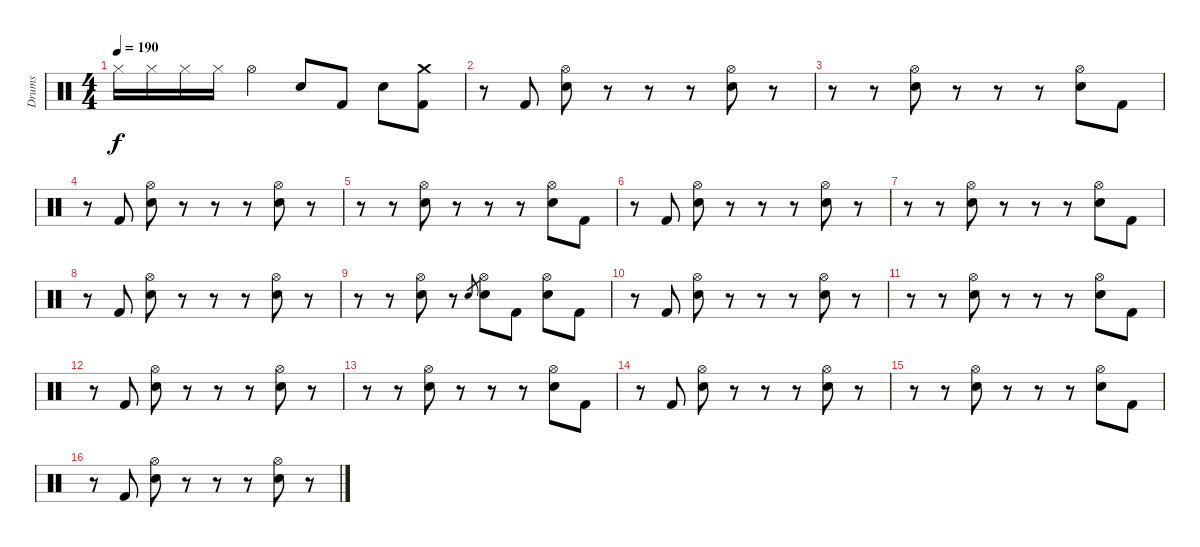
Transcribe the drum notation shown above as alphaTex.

\track ("Drums" "Drums") {instrument percussion}
\staff {score}
\articulation defaults
\ts (4 4)
\tempo 190
\clef neutral
\ks c "Hi-Hat (closed)".16{dy f} "Hi-Hat (closed)".16 "Hi-Hat (closed)".16 "Hi-Hat (closed)".16 "Hi-Hat (open)".4 "Electric Snare (hit)".8 "Kick (hit) 2".8 "Electric Snare (hit)".8
("Crash medium (hit)" "Kick (hit) 2").8 |
r.8 "Kick (hit) 2".8 ("Hi-Hat (open)" "Electric Snare (hit)").8 r.8 r.8 r.8 ("Hi-Hat (open)" "Electric Snare (hit)").8 r.8 |
r.8 r.8 ("Hi-Hat (open)" "Electric Snare (hit)").8 r.8 r.8 r.8 ("Hi-Hat (open)" "Electric Snare (hit)").8 "Kick (hit) 2".8 |
r.8 "Kick (hit) 2".8 ("Hi-Hat (open)" "Electric Snare (hit)").8 r.8 r.8 r.8 ("Hi-Hat (open)" "Electric Snare (hit)").8 r.8 |
r.8 r.8 ("Hi-Hat (open)" "Electric Snare (hit)").8 r.8 r.8 r.8 ("Hi-Hat (open)" "Electric Snare (hit)").8 "Kick (hit) 2".8 |
r.8 "Kick (hit) 2".8 ("Hi-Hat (open)" "Electric Snare (hit)").8 r.8 r.8 r.8 ("Hi-Hat (open)" "Electric Snare (hit)").8 r.8 |
r.8 r.8 ("Hi-Hat (open)" "Electric Snare (hit)").8 r.8 r.8 r.8 ("Hi-Hat (open)" "Electric Snare (hit)").8 "Kick (hit) 2".8 |
r.8 "Kick (hit) 2".8 ("Hi-Hat (open)" "Electric Snare (hit)").8 r.8 r.8 r.8 ("Hi-Hat (open)" "Electric Snare (hit)").8 r.8 |
r.8 r.8 ("Hi-Hat (open)" "Electric Snare (hit)").8 r.8 "Electric Snare (hit)".8{gr} ("Hi-Hat (open)" "Electric Snare (hit)").8 "Kick (hit) 2".8 ("Hi-Hat (open)" "Electric Snare (hit)").8 "Kick (hit) 2".8 |
r.8 "Kick (hit) 2".8 ("Hi-Hat (open)" "Electric Snare (hit)").8 r.8 r.8 r.8 ("Hi-Hat (open)" "Electric Snare (hit)").8 r.8 |
r.8 r.8 ("Hi-Hat (open)" "Electric Snare (hit)").8 r.8 r.8 r.8 ("Hi-Hat (open)" "Electric Snare (hit)").8 "Kick (hit) 2".8 |
r.8 "Kick (hit) 2".8 ("Hi-Hat (open)" "Electric Snare (hit)").8 r.8 r.8 r.8 ("Hi-Hat (open)" "Electric Snare (hit)").8 r.8 |
r.8 r.8 ("Hi-Hat (open)" "Electric Snare (hit)").8 r.8 r.8 r.8 ("Hi-Hat (open)" "Electric Snare (hit)").8 "Kick (hit) 2".8 |
r.8 "Kick (hit) 2".8 ("Hi-Hat (open)" "Electric Snare (hit)").8 r.8 r.8 r.8 ("Hi-Hat (open)" "Electric Snare (hit)").8 r.8 |
r.8 r.8 ("Hi-Hat (open)" "Electric Snare (hit)").8 r.8 r.8 r.8 ("Hi-Hat (open)" "Electric Snare (hit)").8 "Kick (hit) 2".8 |
r.8 "Kick (hit) 2".8 ("Hi-Hat (open)" "Electric Snare (hit)").8 r.8 r.8 r.8 ("Hi-Hat (open)" "Electric Snare (hit)").8 r.8
